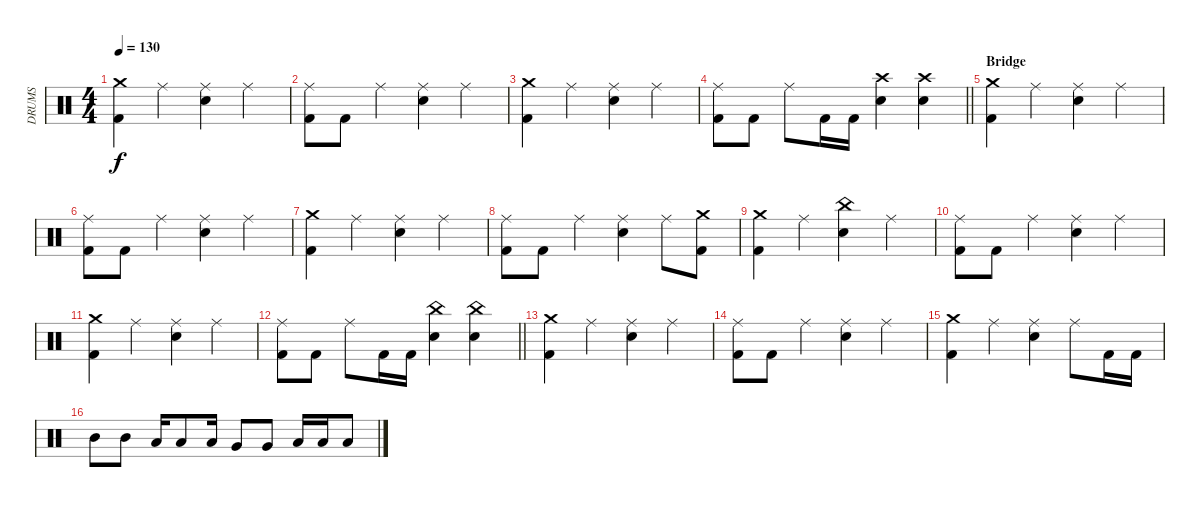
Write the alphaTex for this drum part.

\track ("DRUMS" "DRUMS") {instrument percussion}
\staff {score}
\articulation defaults
\ts (4 4)
\tempo 130
\clef neutral
\ks c
("Crash medium (hit)" "Kick (hit) 2").4{dy f} "Ride (middle)".4 ("Ride (middle)" "Snare (hit) 2").4 "Ride (middle)".4 |
("Ride (middle)" "Kick (hit) 2").8 "Kick (hit) 2".8 "Ride (middle)".4 ("Ride (middle)" "Snare (hit) 2").4 "Ride (middle)".4 |
("Crash medium (hit)" "Kick (hit) 2").4 "Ride (middle)".4 ("Ride (middle)" "Snare (hit) 2").4 "Ride (middle)".4 |
\barLineRight lightlight
("Ride (middle)" "Kick (hit) 2").8 "Kick (hit) 2".8 "Ride (middle)".8 "Kick (hit) 2".16 "Kick (hit) 2".16 ("Crash high (hit)" "Snare (hit) 2").4 ("Crash high (hit)" "Snare (hit) 2").4 |
\section ("" "Bridge")
("Crash medium (hit)" "Kick (hit) 2").4 "Ride (middle)".4 ("Ride (middle)" "Snare (hit) 2").4 "Ride (middle)".4 |
("Ride (middle)" "Kick (hit) 2").8 "Kick (hit) 2".8 "Ride (middle)".4 ("Ride (middle)" "Snare (hit) 2").4 "Ride (middle)".4 |
("Crash medium (hit)" "Kick (hit) 2").4 "Ride (middle)".4 ("Ride (middle)" "Snare (hit) 2").4 "Ride (middle)".4 |
("Ride (middle)" "Kick (hit) 2").8 "Kick (hit) 2".8 "Ride (middle)".4 ("Ride (middle)" "Snare (hit) 2").4 "Ride (middle)".8 ("Crash medium (hit)" "Kick (hit) 2").8 |
("Crash medium (hit)" "Kick (hit) 2").4 "Ride (middle)".4 ("China (hit)" "Snare (hit) 2").4 "Ride (middle)".4 |
("Ride (middle)" "Kick (hit) 2").8 "Kick (hit) 2".8 "Ride (middle)".4 ("Ride (middle)" "Snare (hit) 2").4 "Ride (middle)".4 |
("Crash medium (hit)" "Kick (hit) 2").4 "Ride (middle)".4 ("Ride (middle)" "Snare (hit) 2").4 "Ride (middle)".4 |
\barLineRight lightlight
("Ride (middle)" "Kick (hit) 2").8 "Kick (hit) 2".8 "Ride (middle)".8 "Kick (hit) 2".16 "Kick (hit) 2".16 ("China (hit)" "Snare (hit) 2").4 ("China (hit)" "Snare (hit) 2").4 |
("Crash medium (hit)" "Kick (hit) 2").4 "Ride (middle)".4 ("Ride (middle)" "Snare (hit) 2").4 "Ride (middle)".4 |
("Ride (middle)" "Kick (hit) 2").8 "Kick (hit) 2".8 "Ride (middle)".4 ("Ride (middle)" "Snare (hit) 2").4 "Ride (middle)".4 |
("Crash medium (hit)" "Kick (hit) 2").4 "Ride (middle)".4 ("Ride (middle)" "Snare (hit) 2").4 "Ride (middle)".8 "Kick (hit) 2".16 "Kick (hit) 2".16 |
"Mid Tom (hit)".8 "Mid Tom (hit)".8 "Low Tom (hit)".16 "Low Tom (hit)".8 "Low Tom (hit)".16 "Very Low Tom (hit)".8 "Very Low Tom (hit)".8 "Low Floor Tom (hit)".16 "Low Floor Tom (hit)".16 "Low Floor Tom (hit)".8
